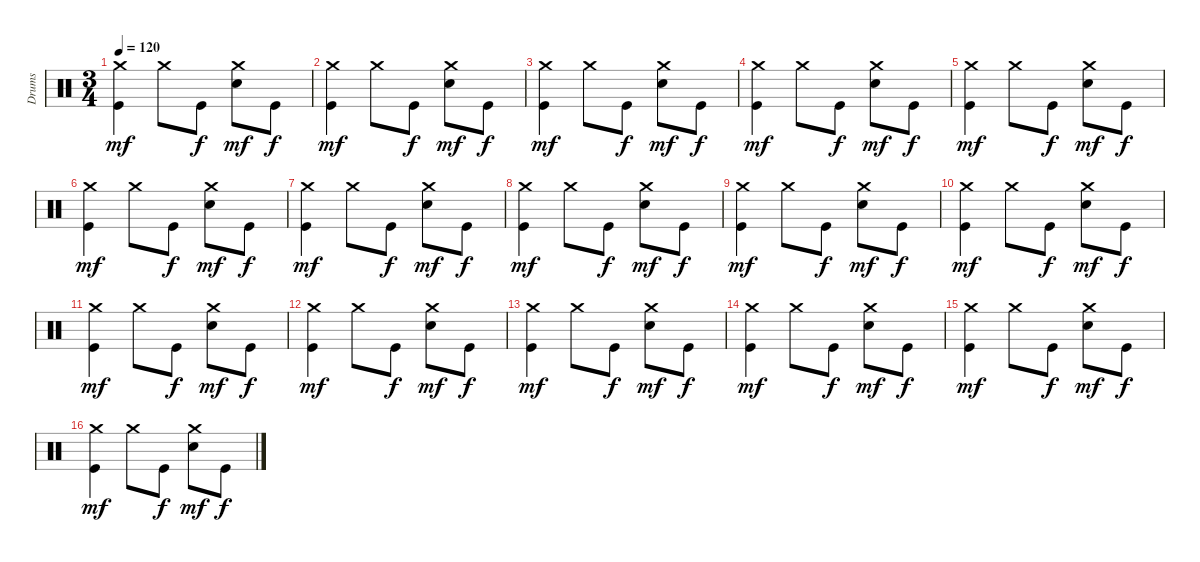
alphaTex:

\track ("Drums" "Drums") {instrument percussion}
\staff {score}
\articulation defaults
\ts (3 4)
\tempo 120
\clef neutral
\ks c
("Crash medium (hit)" "Kick (hit)").4{dy mf balance 11} "Crash medium (hit)".8{balance 12} "Kick (hit)".8{dy f} ("Crash medium (hit)" "Snare (hit) 2").8{dy mf balance 13} "Kick (hit)".8{dy f} |
("Crash medium (hit)" "Kick (hit)").4{dy mf balance 14} "Crash medium (hit)".8{balance 15} "Kick (hit)".8{dy f} ("Crash medium (hit)" "Snare (hit) 2").8{dy mf balance 16} "Kick (hit)".8{dy f} |
("Crash medium (hit)" "Kick (hit)").4{dy mf balance 16} "Crash medium (hit)".8{balance 15} "Kick (hit)".8{dy f} ("Crash medium (hit)" "Snare (hit) 2").8{dy mf balance 14} "Kick (hit)".8{dy f} |
("Crash medium (hit)" "Kick (hit)").4{dy mf balance 13} "Crash medium (hit)".8{balance 12} "Kick (hit)".8{dy f} ("Crash medium (hit)" "Snare (hit) 2").8{dy mf balance 11} "Kick (hit)".8{dy f} |
("Crash medium (hit)" "Kick (hit)").4{dy mf balance 10} "Crash medium (hit)".8{balance 9} "Kick (hit)".8{dy f} ("Crash medium (hit)" "Snare (hit) 2").8{dy mf balance 8} "Kick (hit)".8{dy f} |
("Crash medium (hit)" "Kick (hit)").4{dy mf balance 8} "Crash medium (hit)".8{balance 9} "Kick (hit)".8{dy f} ("Crash medium (hit)" "Snare (hit) 2").8{dy mf balance 10} "Kick (hit)".8{dy f} |
("Crash medium (hit)" "Kick (hit)").4{dy mf balance 11} "Crash medium (hit)".8{balance 12} "Kick (hit)".8{dy f} ("Crash medium (hit)" "Snare (hit) 2").8{dy mf balance 13} "Kick (hit)".8{dy f} |
("Crash medium (hit)" "Kick (hit)").4{dy mf balance 14} "Crash medium (hit)".8{balance 15} "Kick (hit)".8{dy f} ("Crash medium (hit)" "Snare (hit) 2").8{dy mf balance 16} "Kick (hit)".8{dy f} |
("Crash medium (hit)" "Kick (hit)").4{dy mf balance 0} "Crash medium (hit)".8{balance 1} "Kick (hit)".8{dy f} ("Crash medium (hit)" "Snare (hit) 2").8{dy mf balance 2} "Kick (hit)".8{dy f} |
("Crash medium (hit)" "Kick (hit)").4{dy mf balance 3} "Crash medium (hit)".8{balance 4} "Kick (hit)".8{dy f} ("Crash medium (hit)" "Snare (hit) 2").8{dy mf balance 5} "Kick (hit)".8{dy f} |
("Crash medium (hit)" "Kick (hit)").4{dy mf balance 6} "Crash medium (hit)".8{balance 7} "Kick (hit)".8{dy f} ("Crash medium (hit)" "Snare (hit) 2").8{dy mf balance 8} "Kick (hit)".8{dy f} |
("Crash medium (hit)" "Kick (hit)").4{dy mf balance 8} "Crash medium (hit)".8{balance 9} "Kick (hit)".8{dy f} ("Crash medium (hit)" "Snare (hit) 2").8{dy mf balance 10} "Kick (hit)".8{dy f} |
("Crash medium (hit)" "Kick (hit)").4{dy mf balance 11} "Crash medium (hit)".8{balance 12} "Kick (hit)".8{dy f} ("Crash medium (hit)" "Snare (hit) 2").8{dy mf balance 13} "Kick (hit)".8{dy f} |
("Crash medium (hit)" "Kick (hit)").4{dy mf balance 14} "Crash medium (hit)".8{balance 15} "Kick (hit)".8{dy f} ("Crash medium (hit)" "Snare (hit) 2").8{dy mf balance 16} "Kick (hit)".8{dy f} |
("Crash medium (hit)" "Kick (hit)").4{dy mf balance 16} "Crash medium (hit)".8{balance 15} "Kick (hit)".8{dy f} ("Crash medium (hit)" "Snare (hit) 2").8{dy mf balance 14} "Kick (hit)".8{dy f} |
("Crash medium (hit)" "Kick (hit)").4{dy mf balance 13} "Crash medium (hit)".8{balance 12} "Kick (hit)".8{dy f} ("Crash medium (hit)" "Snare (hit) 2").8{dy mf balance 11} "Kick (hit)".8{dy f}
